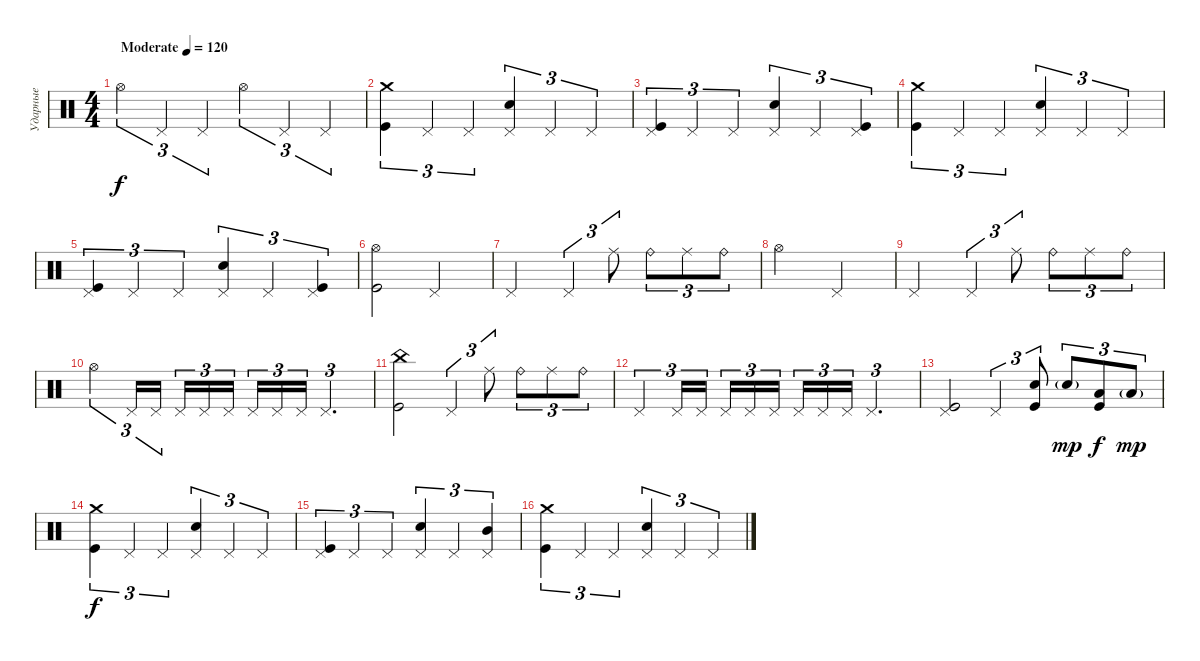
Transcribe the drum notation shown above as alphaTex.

\track ("Ударные" "Ударные") {instrument percussion}
\staff {score}
\articulation defaults
\ts (4 4)
\tempo (120 "Moderate")
\clef neutral
\ks c "Hi-Hat (open)".4{tu (3 2) dy f} "Pedal Hi-Hat (hit)".4{tu (3 2)} "Pedal Hi-Hat (hit)".4{tu (3 2)} "Hi-Hat (open)".4{tu (3 2)} "Pedal Hi-Hat (hit)".4{tu (3 2)} "Pedal Hi-Hat (hit)".4{tu (3 2)}
|
("Crash medium (hit)" "Kick (hit)").4{tu (3 2)} "Pedal Hi-Hat (hit)".4{tu (3 2)} "Pedal Hi-Hat (hit)".4{tu (3 2)} ("Pedal Hi-Hat (hit)" "Electric Snare (hit)").4{tu (3 2)} "Pedal Hi-Hat (hit)".4{tu (3 2)} "Pedal Hi-Hat (hit)".4{tu (3 2)} |
("Pedal Hi-Hat (hit)" "Kick (hit)").4{tu (3 2)} "Pedal Hi-Hat (hit)".4{tu (3 2)} "Pedal Hi-Hat (hit)".4{tu (3 2)} ("Pedal Hi-Hat (hit)" "Electric Snare (hit)").4{tu (3 2)} "Pedal Hi-Hat (hit)".4{tu (3 2)} ("Pedal Hi-Hat (hit)" "Kick (hit)").4{tu (3 2)} |
("Crash medium (hit)" "Kick (hit)").4{tu (3 2)} "Pedal Hi-Hat (hit)".4{tu (3 2)} "Pedal Hi-Hat (hit)".4{tu (3 2)} ("Pedal Hi-Hat (hit)" "Electric Snare (hit)").4{tu (3 2)} "Pedal Hi-Hat (hit)".4{tu (3 2)} "Pedal Hi-Hat (hit)".4{tu (3 2)} |
("Pedal Hi-Hat (hit)" "Kick (hit)").4{tu (3 2)} "Pedal Hi-Hat (hit)".4{tu (3 2)} "Pedal Hi-Hat (hit)".4{tu (3 2)} ("Pedal Hi-Hat (hit)" "Electric Snare (hit)").4{tu (3 2)} "Pedal Hi-Hat (hit)".4{tu (3 2)} ("Pedal Hi-Hat (hit)" "Kick (hit)").4{tu (3 2)} |
("Hi-Hat (open)" "Kick (hit)").2 "Pedal Hi-Hat (hit)".2 |
"Pedal Hi-Hat (hit)".2 "Pedal Hi-Hat (hit)".4{tu (3 2)} "Ride (middle)".8{tu (3 2)} "Ride (bell)".8{tu (3 2)} "Ride (middle)".8{tu (3 2)} "Ride (bell)".8{tu (3 2)} |
"Hi-Hat (open)".2 "Pedal Hi-Hat (hit)".2 |
"Pedal Hi-Hat (hit)".2 "Pedal Hi-Hat (hit)".4{tu (3 2)} "Ride (middle)".8{tu (3 2)} "Ride (bell)".8{tu (3 2)} "Ride (middle)".8{tu (3 2)} "Ride (bell)".8{tu (3 2)} |
"Hi-Hat (open)".4{tu (3 2)} "Pedal Hi-Hat (hit)".16{tu (3 2)} "Pedal Hi-Hat (hit)".16{tu (3 2)} "Pedal Hi-Hat (hit)".16{tu (3 2)} "Pedal Hi-Hat (hit)".16{tu (3 2)} "Pedal Hi-Hat (hit)".16{tu (3 2) beam splitsecondary} "Pedal Hi-Hat (hit)".16{tu (3 2)} "Pedal Hi-Hat (hit)".16{tu (3 2)} "Pedal Hi-Hat (hit)".16{tu (3 2)} "Pedal Hi-Hat (hit)".2{d tu (3 2)} |
("China (hit)" "Kick (hit)").2 "Pedal Hi-Hat (hit)".4{tu (3 2)} "Ride (middle)".8{tu (3 2)} "Ride (bell)".8{tu (3 2)} "Ride (middle)".8{tu (3 2)} "Ride (bell)".8{tu (3 2)} |
"Pedal Hi-Hat (hit)".4{tu (3 2)} "Pedal Hi-Hat (hit)".16{tu (3 2)} "Pedal Hi-Hat (hit)".16{tu (3 2)} "Pedal Hi-Hat (hit)".16{tu (3 2)} "Pedal Hi-Hat (hit)".16{tu (3 2)} "Pedal Hi-Hat (hit)".16{tu (3 2) beam splitsecondary} "Pedal Hi-Hat (hit)".16{tu (3 2)} "Pedal Hi-Hat (hit)".16{tu (3 2)} "Pedal Hi-Hat (hit)".16{tu (3 2)} "Pedal Hi-Hat (hit)".2{d tu (3 2)} |
("Pedal Hi-Hat (hit)" "Kick (hit)").2 "Pedal Hi-Hat (hit)".4{tu (3 2)} ("Electric Snare (hit)" "Kick (hit)").8{tu (3 2)} "Electric Snare (hit)"{g}.8{tu (3 2) dy mp} ("Low Tom (hit)" "Kick (hit)").8{tu (3 2) dy f} "Low Tom (hit)"{g}.8{tu (3 2) dy mp} |
("Crash medium (hit)" "Kick (hit)").4{tu (3 2) dy f} "Pedal Hi-Hat (hit)".4{tu (3 2)} "Pedal Hi-Hat (hit)".4{tu (3 2)} ("Pedal Hi-Hat (hit)" "Electric Snare (hit)").4{tu (3 2)} "Pedal Hi-Hat (hit)".4{tu (3 2)} "Pedal Hi-Hat (hit)".4{tu (3 2)} |
("Pedal Hi-Hat (hit)" "Kick (hit)").4{tu (3 2)} "Pedal Hi-Hat (hit)".4{tu (3 2)} "Pedal Hi-Hat (hit)".4{tu (3 2)} ("Pedal Hi-Hat (hit)" "Electric Snare (hit)").4{tu (3 2)} "Pedal Hi-Hat (hit)".4{tu (3 2)} ("Pedal Hi-Hat (hit)" "Mid Tom (hit)").4{tu (3 2)} |
("Crash medium (hit)" "Kick (hit)").4{tu (3 2)} "Pedal Hi-Hat (hit)".4{tu (3 2)} "Pedal Hi-Hat (hit)".4{tu (3 2)} ("Pedal Hi-Hat (hit)" "Electric Snare (hit)").4{tu (3 2)} "Pedal Hi-Hat (hit)".4{tu (3 2)} "Pedal Hi-Hat (hit)".4{tu (3 2)}
